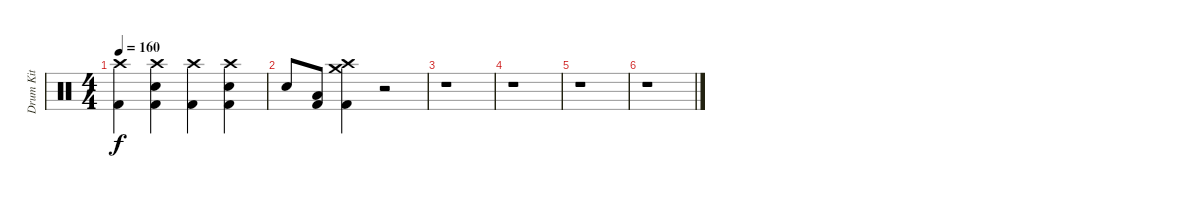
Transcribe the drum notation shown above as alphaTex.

\track ("Drum Kit" "Drum Kit") {instrument percussion}
\staff {score}
\articulation defaults
\ts (4 4)
\tempo 160
\clef neutral
\ks c
("Crash high (hit)" "Kick (hit) 2").4{dy f} ("Crash high (hit)" "Electric Snare (hit)" "Kick (hit) 2").4 ("Crash high (hit)" "Kick (hit) 2").4 ("Crash high (hit)" "Electric Snare (hit)" "Kick (hit) 2").4 |
"Electric Snare (hit)".8 ("Low Floor Tom (hit)" "Kick (hit) 2").8 ("Crash medium (hit)" "Crash high (hit)" "Kick (hit) 2").4 r.2 |
r.1 |
r.1 |
r.1 |
r.1
